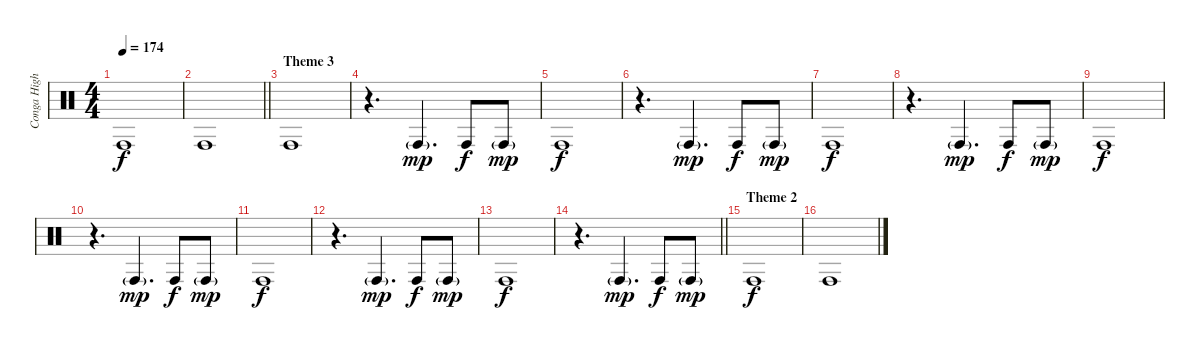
\track ("Conga High" "Conga High") {instrument percussion}
\staff {score}
\articulation defaults
\ts (4 4)
\tempo 174
\clef neutral
\ks c "Conga high (hit)".1{dy f}
|
\barLineRight lightlight "Conga high (hit)".1
|
\section ("" "Theme 3")
"Conga high (hit)".1 |
r.4{d} "Conga high (hit)"{g}.4{d dy mp} "Conga high (hit)".8{dy f} "Conga high (hit)"{g}.8{dy mp} |
"Conga high (hit)".1{dy f} |
r.4{d} "Conga high (hit)"{g}.4{d dy mp} "Conga high (hit)".8{dy f} "Conga high (hit)"{g}.8{dy mp} |
"Conga high (hit)".1{dy f} |
r.4{d} "Conga high (hit)"{g}.4{d dy mp} "Conga high (hit)".8{dy f} "Conga high (hit)"{g}.8{dy mp} |
"Conga high (hit)".1{dy f} |
r.4{d} "Conga high (hit)"{g}.4{d dy mp} "Conga high (hit)".8{dy f} "Conga high (hit)"{g}.8{dy mp} |
"Conga high (hit)".1{dy f} |
r.4{d} "Conga high (hit)"{g}.4{d dy mp} "Conga high (hit)".8{dy f} "Conga high (hit)"{g}.8{dy mp} |
"Conga high (hit)".1{dy f} |
\barLineRight lightlight
r.4{d} "Conga high (hit)"{g}.4{d dy mp} "Conga high (hit)".8{dy f} "Conga high (hit)"{g}.8{dy mp} |
\section ("" "Theme 2")
"Conga high (hit)".1{dy f} |
"Conga high (hit)".1
